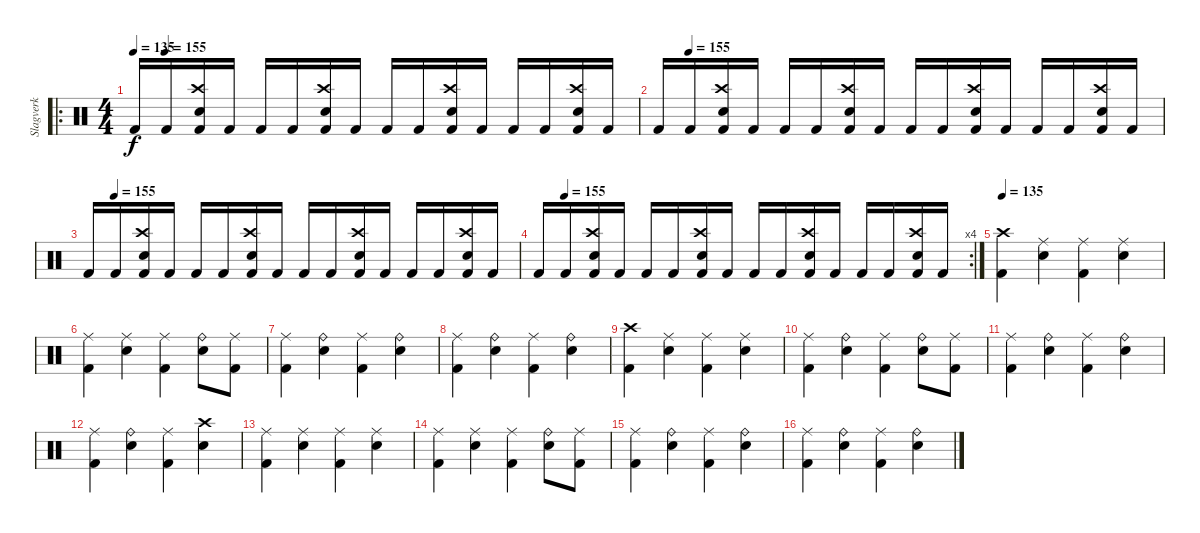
\track ("Slagverk" "Slagverk") {instrument percussion}
\staff {score}
\articulation defaults
\ro
\ts (4 4)
\tempo 135
\tempo (155 0.0625)
\clef neutral
\ks c "Kick (hit) 2".16{dy f} "Kick (hit) 2".16
("Crash high (hit)" "Electric Snare (hit)" "Kick (hit) 2").16 "Kick (hit) 2".16 "Kick (hit) 2".16 "Kick (hit) 2".16 ("Crash high (hit)" "Electric Snare (hit)" "Kick (hit) 2").16 "Kick (hit) 2".16 "Kick (hit) 2".16 "Kick (hit) 2".16 ("Crash high (hit)" "Electric Snare (hit)" "Kick (hit) 2").16 "Kick (hit) 2".16 "Kick (hit) 2".16 "Kick (hit) 2".16 ("Crash high (hit)" "Electric Snare (hit)" "Kick (hit) 2").16 "Kick (hit) 2".16 |
\tempo (155 0.0625)
"Kick (hit) 2".16 "Kick (hit) 2".16 ("Crash high (hit)" "Electric Snare (hit)" "Kick (hit) 2").16 "Kick (hit) 2".16 "Kick (hit) 2".16 "Kick (hit) 2".16 ("Crash high (hit)" "Electric Snare (hit)" "Kick (hit) 2").16 "Kick (hit) 2".16 "Kick (hit) 2".16 "Kick (hit) 2".16 ("Crash high (hit)" "Electric Snare (hit)" "Kick (hit) 2").16 "Kick (hit) 2".16 "Kick (hit) 2".16 "Kick (hit) 2".16 ("Crash high (hit)" "Electric Snare (hit)" "Kick (hit) 2").16 "Kick (hit) 2".16 |
\tempo (155 0.0625)
"Kick (hit) 2".16 "Kick (hit) 2".16 ("Crash high (hit)" "Electric Snare (hit)" "Kick (hit) 2").16 "Kick (hit) 2".16 "Kick (hit) 2".16 "Kick (hit) 2".16 ("Crash high (hit)" "Electric Snare (hit)" "Kick (hit) 2").16 "Kick (hit) 2".16 "Kick (hit) 2".16 "Kick (hit) 2".16 ("Crash high (hit)" "Electric Snare (hit)" "Kick (hit) 2").16 "Kick (hit) 2".16 "Kick (hit) 2".16 "Kick (hit) 2".16 ("Crash high (hit)" "Electric Snare (hit)" "Kick (hit) 2").16 "Kick (hit) 2".16 |
\rc 4
\tempo (155 0.0625)
"Kick (hit) 2".16 "Kick (hit) 2".16 ("Crash high (hit)" "Electric Snare (hit)" "Kick (hit) 2").16 "Kick (hit) 2".16 "Kick (hit) 2".16 "Kick (hit) 2".16 ("Crash high (hit)" "Electric Snare (hit)" "Kick (hit) 2").16 "Kick (hit) 2".16 "Kick (hit) 2".16 "Kick (hit) 2".16 ("Crash high (hit)" "Electric Snare (hit)" "Kick (hit) 2").16 "Kick (hit) 2".16 "Kick (hit) 2".16 "Kick (hit) 2".16 ("Crash high (hit)" "Electric Snare (hit)" "Kick (hit) 2").16 "Kick (hit) 2".16 |
\tempo 135
("Crash high (hit)" "Kick (hit) 2").4 ("Ride (middle)" "Electric Snare (hit)").4 ("Ride (middle)" "Kick (hit) 2").4 ("Ride (middle)" "Electric Snare (hit)").4 |
("Ride (middle)" "Kick (hit) 2").4 ("Ride (middle)" "Electric Snare (hit)").4 ("Ride (middle)" "Kick (hit) 2").4 ("Ride (bell)" "Electric Snare (hit)").8 ("Ride (middle)" "Kick (hit) 2").8 |
("Ride (middle)" "Kick (hit) 2").4 ("Ride (bell)" "Electric Snare (hit)").4 ("Ride (middle)" "Kick (hit) 2").4 ("Ride (bell)" "Electric Snare (hit)").4 |
("Ride (middle)" "Kick (hit) 2").4 ("Ride (bell)" "Electric Snare (hit)").4 ("Ride (middle)" "Kick (hit) 2").4 ("Ride (bell)" "Electric Snare (hit)").4 |
("Crash high (hit)" "Kick (hit) 2").4 ("Ride (middle)" "Electric Snare (hit)").4 ("Ride (middle)" "Kick (hit) 2").4 ("Ride (middle)" "Electric Snare (hit)").4 |
("Ride (middle)" "Kick (hit) 2").4 ("Ride (bell)" "Electric Snare (hit)").4 ("Ride (middle)" "Kick (hit) 2").4 ("Ride (bell)" "Electric Snare (hit)").8 ("Ride (middle)" "Kick (hit) 2").8 |
("Ride (middle)" "Kick (hit) 2").4 ("Ride (bell)" "Electric Snare (hit)").4 ("Ride (middle)" "Kick (hit) 2").4 ("Ride (bell)" "Electric Snare (hit)").4 |
("Ride (middle)" "Kick (hit) 2").4 ("Ride (bell)" "Electric Snare (hit)").4 ("Ride (middle)" "Kick (hit) 2").4 ("Crash high (hit)" "Electric Snare (hit)").4 |
("Ride (middle)" "Kick (hit) 2").4 ("Ride (middle)" "Electric Snare (hit)").4 ("Ride (middle)" "Kick (hit) 2").4 ("Ride (middle)" "Electric Snare (hit)").4 |
("Ride (middle)" "Kick (hit) 2").4 ("Ride (middle)" "Electric Snare (hit)").4 ("Ride (middle)" "Kick (hit) 2").4 ("Ride (bell)" "Electric Snare (hit)").8 ("Ride (middle)" "Kick (hit) 2").8 |
("Ride (middle)" "Kick (hit) 2").4 ("Ride (bell)" "Electric Snare (hit)").4 ("Ride (middle)" "Kick (hit) 2").4 ("Ride (bell)" "Electric Snare (hit)").4 |
("Ride (middle)" "Kick (hit) 2").4 ("Ride (bell)" "Electric Snare (hit)").4 ("Ride (middle)" "Kick (hit) 2").4 ("Ride (bell)" "Electric Snare (hit)").4
